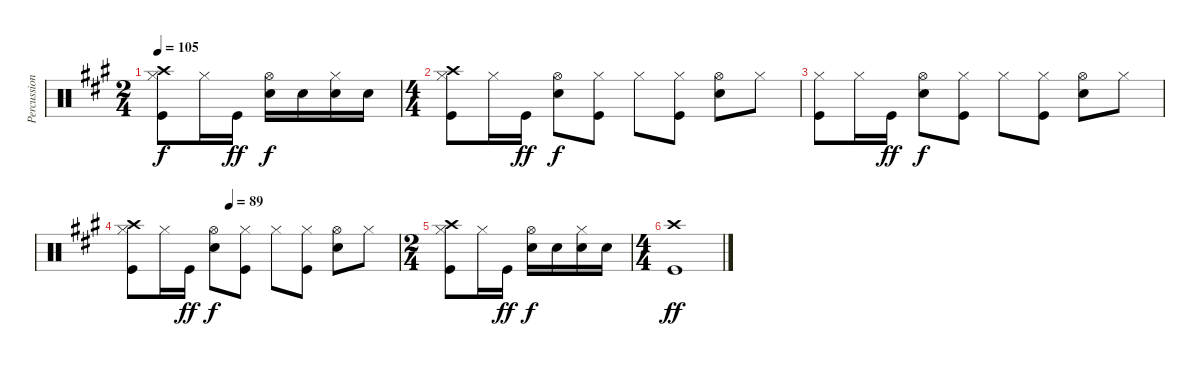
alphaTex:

\track ("Percussion" "Percussion") {instrument percussion}
\staff {score}
\articulation defaults
\ts (2 4)
\tempo 105
\clef neutral
\ks a
("Hi-Hat (closed)" "Crash high (hit)" "Kick (hit)").8{dy f} "Hi-Hat (closed)".16 "Kick (hit)".16{dy ff} ("Hi-Hat (open)" "Snare (hit) 2").16{dy f} "Snare (hit) 2".16 ("Hi-Hat (closed)" "Snare (hit) 2").16 "Snare (hit) 2".16 |
\ts (4 4)
("Hi-Hat (closed)" "Crash high (hit)" "Kick (hit)").8 "Hi-Hat (closed)".16 "Kick (hit)".16{dy ff} ("Hi-Hat (open)" "Snare (hit) 2").8{dy f} ("Hi-Hat (closed)" "Kick (hit)").8 "Hi-Hat (closed)".8 ("Hi-Hat (closed)" "Kick (hit)").8 ("Hi-Hat (open)" "Snare (hit) 2").8 "Hi-Hat (closed)".8 |
("Hi-Hat (closed)" "Kick (hit)").8 "Hi-Hat (closed)".16 "Kick (hit)".16{dy ff} ("Hi-Hat (open)" "Snare (hit) 2").8{dy f} ("Hi-Hat (closed)" "Kick (hit)").8 "Hi-Hat (closed)".8 ("Hi-Hat (closed)" "Kick (hit)").8 ("Hi-Hat (open)" "Snare (hit) 2").8 "Hi-Hat (closed)".8 |
\tempo (89 0.375)
("Hi-Hat (closed)" "Crash high (hit)" "Kick (hit)").8 "Hi-Hat (closed)".16 "Kick (hit)".16{dy ff} ("Hi-Hat (open)" "Snare (hit) 2").8{dy f} ("Hi-Hat (closed)" "Kick (hit)").8 "Hi-Hat (closed)".8 ("Hi-Hat (closed)" "Kick (hit)").8 ("Hi-Hat (open)" "Snare (hit) 2").8 "Hi-Hat (closed)".8 |
\ts (2 4)
("Hi-Hat (closed)" "Crash high (hit)" "Kick (hit)").8 "Hi-Hat (closed)".16 "Kick (hit)".16{dy ff} ("Hi-Hat (open)" "Snare (hit) 2").16{dy f} "Snare (hit) 2".16 ("Hi-Hat (closed)" "Snare (hit) 2").16 "Snare (hit) 2".16 |
\ts (4 4)
("Crash high (hit)" "Kick (hit)").1{dy ff}
